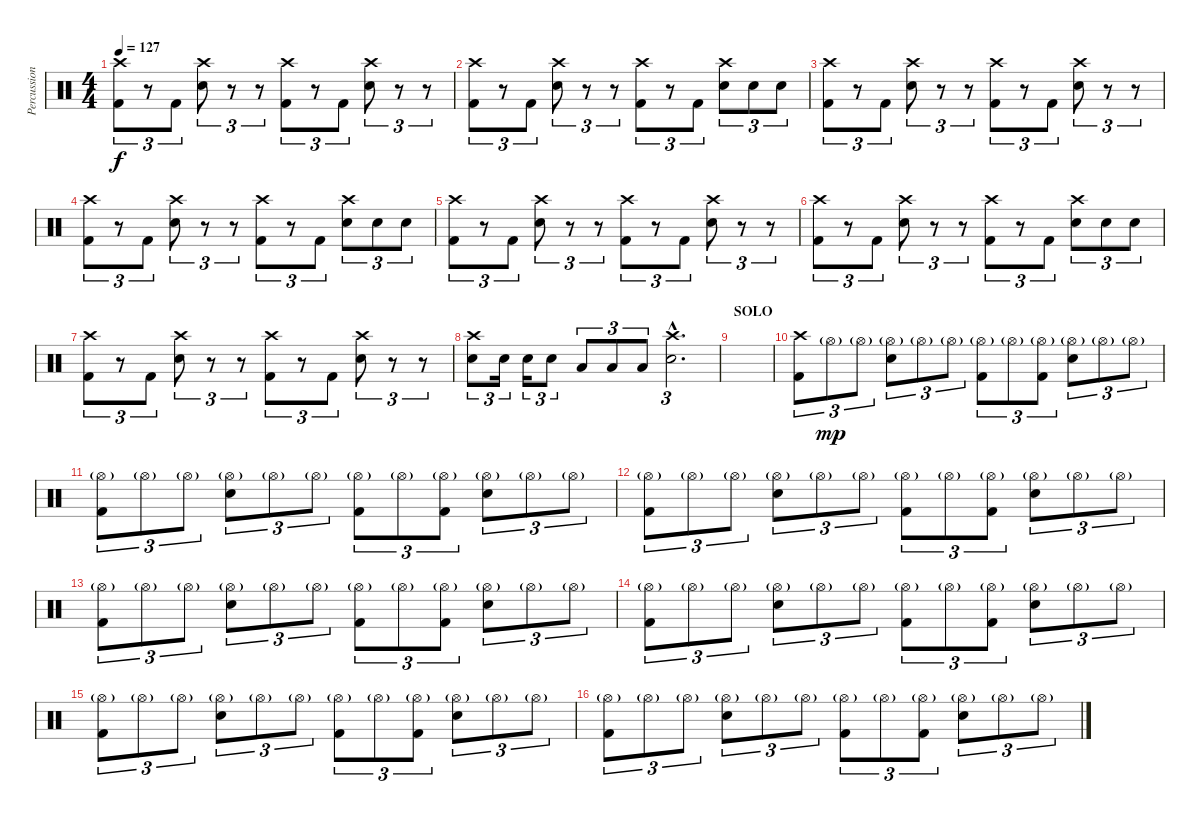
\track ("Percussion" "Percussion") {instrument percussion}
\staff {score}
\articulation defaults
\ts (4 4)
\tempo 127
\clef neutral
\ks c
("Crash high (hit)" "Kick (hit) 2").8{tu (3 2) dy f} r.8{tu (3 2)} "Kick (hit) 2".8{tu (3 2)} ("Crash high (hit)" "Electric Snare (hit)").8{tu (3 2)} r.8{tu (3 2)} r.8{tu (3 2)} ("Crash high (hit)" "Kick (hit) 2").8{tu (3 2)} r.8{tu (3 2)} "Kick (hit) 2".8{tu (3 2)} ("Crash high (hit)" "Electric Snare (hit)").8{tu (3 2)} r.8{tu (3 2)} r.8{tu (3 2)} |
("Crash high (hit)" "Kick (hit) 2").8{tu (3 2)} r.8{tu (3 2)} "Kick (hit) 2".8{tu (3 2)} ("Crash high (hit)" "Electric Snare (hit)").8{tu (3 2)} r.8{tu (3 2)} r.8{tu (3 2)} ("Crash high (hit)" "Kick (hit) 2").8{tu (3 2)} r.8{tu (3 2)} "Kick (hit) 2".8{tu (3 2)} ("Crash high (hit)" "Electric Snare (hit)").8{tu (3 2)} "Electric Snare (hit)".8{tu (3 2)} "Electric Snare (hit)".8{tu (3 2)} |
("Crash high (hit)" "Kick (hit) 2").8{tu (3 2)} r.8{tu (3 2)} "Kick (hit) 2".8{tu (3 2)} ("Crash high (hit)" "Electric Snare (hit)").8{tu (3 2)} r.8{tu (3 2)} r.8{tu (3 2)} ("Crash high (hit)" "Kick (hit) 2").8{tu (3 2)} r.8{tu (3 2)} "Kick (hit) 2".8{tu (3 2)} ("Crash high (hit)" "Electric Snare (hit)").8{tu (3 2)} r.8{tu (3 2)} r.8{tu (3 2)} |
("Crash high (hit)" "Kick (hit) 2").8{tu (3 2)} r.8{tu (3 2)} "Kick (hit) 2".8{tu (3 2)} ("Crash high (hit)" "Electric Snare (hit)").8{tu (3 2)} r.8{tu (3 2)} r.8{tu (3 2)} ("Crash high (hit)" "Kick (hit) 2").8{tu (3 2)} r.8{tu (3 2)} "Kick (hit) 2".8{tu (3 2)} ("Crash high (hit)" "Electric Snare (hit)").8{tu (3 2)} "Electric Snare (hit)".8{tu (3 2)} "Electric Snare (hit)".8{tu (3 2)} |
("Crash high (hit)" "Kick (hit) 2").8{tu (3 2)} r.8{tu (3 2)} "Kick (hit) 2".8{tu (3 2)} ("Crash high (hit)" "Electric Snare (hit)").8{tu (3 2)} r.8{tu (3 2)} r.8{tu (3 2)} ("Crash high (hit)" "Kick (hit) 2").8{tu (3 2)} r.8{tu (3 2)} "Kick (hit) 2".8{tu (3 2)} ("Crash high (hit)" "Electric Snare (hit)").8{tu (3 2)} r.8{tu (3 2)} r.8{tu (3 2)} |
("Crash high (hit)" "Kick (hit) 2").8{tu (3 2)} r.8{tu (3 2)} "Kick (hit) 2".8{tu (3 2)} ("Crash high (hit)" "Electric Snare (hit)").8{tu (3 2)} r.8{tu (3 2)} r.8{tu (3 2)} ("Crash high (hit)" "Kick (hit) 2").8{tu (3 2)} r.8{tu (3 2)} "Kick (hit) 2".8{tu (3 2)} ("Crash high (hit)" "Electric Snare (hit)").8{tu (3 2)} "Electric Snare (hit)".8{tu (3 2)} "Electric Snare (hit)".8{tu (3 2)} |
("Crash high (hit)" "Kick (hit) 2").8{tu (3 2)} r.8{tu (3 2)} "Kick (hit) 2".8{tu (3 2)} ("Crash high (hit)" "Electric Snare (hit)").8{tu (3 2)} r.8{tu (3 2)} r.8{tu (3 2)} ("Crash high (hit)" "Kick (hit) 2").8{tu (3 2)} r.8{tu (3 2)} "Kick (hit) 2".8{tu (3 2)} ("Crash high (hit)" "Electric Snare (hit)").8{tu (3 2)} r.8{tu (3 2)} r.8{tu (3 2)} |
("Crash high (hit)" "Electric Snare (hit)").8{tu (3 2)} "Electric Snare (hit)".16{tu (3 2)} "Electric Snare (hit)".16{tu (3 2)} "Electric Snare (hit)".8{tu (3 2)} "Low Tom (hit)".8{tu (3 2)} "Low Tom (hit)".8{tu (3 2)} "Low Tom (hit)".8{tu (3 2)} ("Crash high (hit)"{hac} "Electric Snare (hit)"{hac}).2{d tu (3 2)} |
\section ("" "SOLO")
|
("Crash high (hit)" "Kick (hit) 2").8{tu (3 2)} "Hi-Hat (open)"{g}.8{tu (3 2) dy mp} "Hi-Hat (open)"{g}.8{tu (3 2)} ("Hi-Hat (open)"{g} "Electric Snare (hit)").8{tu (3 2)} "Hi-Hat (open)"{g}.8{tu (3 2)} "Hi-Hat (open)"{g}.8{tu (3 2)} ("Hi-Hat (open)"{g} "Kick (hit) 2").8{tu (3 2)} "Hi-Hat (open)"{g}.8{tu (3 2)} ("Hi-Hat (open)"{g} "Kick (hit) 2").8{tu (3 2)} ("Hi-Hat (open)"{g} "Electric Snare (hit)").8{tu (3 2)} "Hi-Hat (open)"{g}.8{tu (3 2)} "Hi-Hat (open)"{g}.8{tu (3 2)} |
("Hi-Hat (open)"{g} "Kick (hit) 2").8{tu (3 2)} "Hi-Hat (open)"{g}.8{tu (3 2)} "Hi-Hat (open)"{g}.8{tu (3 2)} ("Hi-Hat (open)"{g} "Electric Snare (hit)").8{tu (3 2)} "Hi-Hat (open)"{g}.8{tu (3 2)} "Hi-Hat (open)"{g}.8{tu (3 2)} ("Hi-Hat (open)"{g} "Kick (hit) 2").8{tu (3 2)} "Hi-Hat (open)"{g}.8{tu (3 2)} ("Hi-Hat (open)"{g} "Kick (hit) 2").8{tu (3 2)} ("Hi-Hat (open)"{g} "Electric Snare (hit)").8{tu (3 2)} "Hi-Hat (open)"{g}.8{tu (3 2)} "Hi-Hat (open)"{g}.8{tu (3 2)} |
("Hi-Hat (open)"{g} "Kick (hit) 2").8{tu (3 2)} "Hi-Hat (open)"{g}.8{tu (3 2)} "Hi-Hat (open)"{g}.8{tu (3 2)} ("Hi-Hat (open)"{g} "Electric Snare (hit)").8{tu (3 2)} "Hi-Hat (open)"{g}.8{tu (3 2)} "Hi-Hat (open)"{g}.8{tu (3 2)} ("Hi-Hat (open)"{g} "Kick (hit) 2").8{tu (3 2)} "Hi-Hat (open)"{g}.8{tu (3 2)} ("Hi-Hat (open)"{g} "Kick (hit) 2").8{tu (3 2)} ("Hi-Hat (open)"{g} "Electric Snare (hit)").8{tu (3 2)} "Hi-Hat (open)"{g}.8{tu (3 2)} "Hi-Hat (open)"{g}.8{tu (3 2)} |
("Hi-Hat (open)"{g} "Kick (hit) 2").8{tu (3 2)} "Hi-Hat (open)"{g}.8{tu (3 2)} "Hi-Hat (open)"{g}.8{tu (3 2)} ("Hi-Hat (open)"{g} "Electric Snare (hit)").8{tu (3 2)} "Hi-Hat (open)"{g}.8{tu (3 2)} "Hi-Hat (open)"{g}.8{tu (3 2)} ("Hi-Hat (open)"{g} "Kick (hit) 2").8{tu (3 2)} "Hi-Hat (open)"{g}.8{tu (3 2)} ("Hi-Hat (open)"{g} "Kick (hit) 2").8{tu (3 2)} ("Hi-Hat (open)"{g} "Electric Snare (hit)").8{tu (3 2)} "Hi-Hat (open)"{g}.8{tu (3 2)} "Hi-Hat (open)"{g}.8{tu (3 2)} |
("Hi-Hat (open)"{g} "Kick (hit) 2").8{tu (3 2)} "Hi-Hat (open)"{g}.8{tu (3 2)} "Hi-Hat (open)"{g}.8{tu (3 2)} ("Hi-Hat (open)"{g} "Electric Snare (hit)").8{tu (3 2)} "Hi-Hat (open)"{g}.8{tu (3 2)} "Hi-Hat (open)"{g}.8{tu (3 2)} ("Hi-Hat (open)"{g} "Kick (hit) 2").8{tu (3 2)} "Hi-Hat (open)"{g}.8{tu (3 2)} ("Hi-Hat (open)"{g} "Kick (hit) 2").8{tu (3 2)} ("Hi-Hat (open)"{g} "Electric Snare (hit)").8{tu (3 2)} "Hi-Hat (open)"{g}.8{tu (3 2)} "Hi-Hat (open)"{g}.8{tu (3 2)} |
("Hi-Hat (open)"{g} "Kick (hit) 2").8{tu (3 2)} "Hi-Hat (open)"{g}.8{tu (3 2)} "Hi-Hat (open)"{g}.8{tu (3 2)} ("Hi-Hat (open)"{g} "Electric Snare (hit)").8{tu (3 2)} "Hi-Hat (open)"{g}.8{tu (3 2)} "Hi-Hat (open)"{g}.8{tu (3 2)} ("Hi-Hat (open)"{g} "Kick (hit) 2").8{tu (3 2)} "Hi-Hat (open)"{g}.8{tu (3 2)} ("Hi-Hat (open)"{g} "Kick (hit) 2").8{tu (3 2)} ("Hi-Hat (open)"{g} "Electric Snare (hit)").8{tu (3 2)} "Hi-Hat (open)"{g}.8{tu (3 2)} "Hi-Hat (open)"{g}.8{tu (3 2)} |
("Hi-Hat (open)"{g} "Kick (hit) 2").8{tu (3 2)} "Hi-Hat (open)"{g}.8{tu (3 2)} "Hi-Hat (open)"{g}.8{tu (3 2)} ("Hi-Hat (open)"{g} "Electric Snare (hit)").8{tu (3 2)} "Hi-Hat (open)"{g}.8{tu (3 2)} "Hi-Hat (open)"{g}.8{tu (3 2)} ("Hi-Hat (open)"{g} "Kick (hit) 2").8{tu (3 2)} "Hi-Hat (open)"{g}.8{tu (3 2)} ("Hi-Hat (open)"{g} "Kick (hit) 2").8{tu (3 2)} ("Hi-Hat (open)"{g} "Electric Snare (hit)").8{tu (3 2)} "Hi-Hat (open)"{g}.8{tu (3 2)} "Hi-Hat (open)"{g}.8{tu (3 2)}
